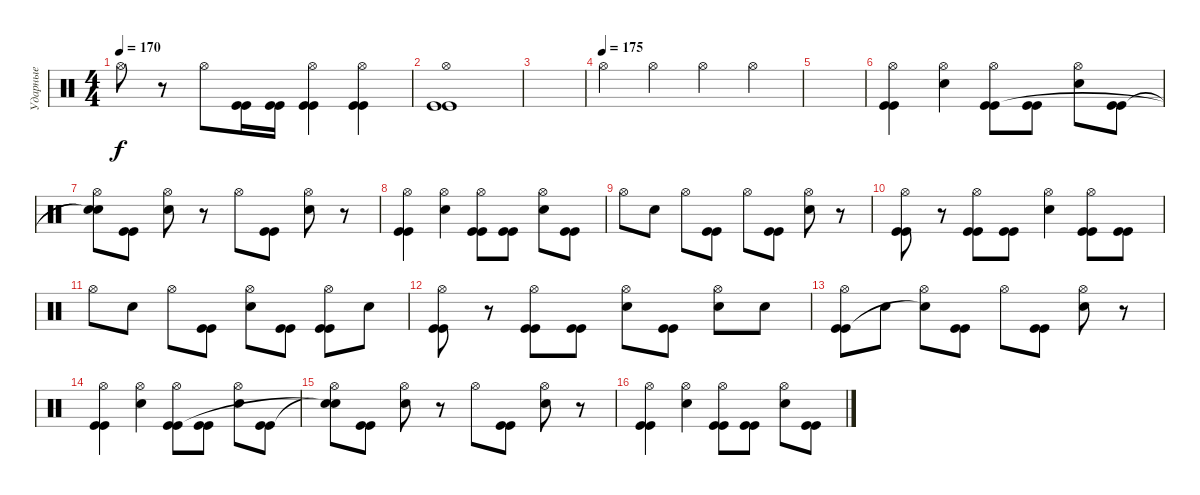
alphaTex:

\track ("Ударные" "Ударные") {instrument percussion}
\staff {score}
\articulation defaults
\ts (4 4)
\tempo 170
\clef neutral
\ks c "Hi-Hat (open)".8{dy f}
r.8 "Hi-Hat (open)".8 ("Kick (hit)" "Kick (hit)").16 ("Kick (hit)" "Kick (hit)").16 ("Hi-Hat (open)" "Kick (hit)" "Kick (hit)").4 ("Hi-Hat (open)" "Kick (hit)" "Kick (hit)").4 |
("Hi-Hat (open)" "Kick (hit)" "Kick (hit)").1 |
|
\tempo (175)
"Hi-Hat (open)".4 "Hi-Hat (open)".4 "Hi-Hat (open)".4 "Hi-Hat (open)".4 |
|
("Hi-Hat (open)" "Kick (hit)" "Kick (hit)").4 ("Hi-Hat (open)" "Snare (hit) 2").4 ("Hi-Hat (open)" "Kick (hit)" "Kick (hit)").8 ("Kick (hit)" "Kick (hit)").8 ("Hi-Hat (open)" "Snare (hit) 2").8 ("Kick (hit)" "Kick (hit)").8 |
("Hi-Hat (open)" "Snare (hit)"{t} "Snare (hit)"{t}).8 ("Kick (hit)" "Kick (hit)").8 ("Hi-Hat (open)" "Snare (hit) 2").8 r.8 "Hi-Hat (open)".8 ("Kick (hit)" "Kick (hit)").8 ("Hi-Hat (open)" "Snare (hit) 2").8 r.8 |
("Hi-Hat (open)" "Kick (hit)" "Kick (hit)").4 ("Hi-Hat (open)" "Snare (hit) 2").4 ("Hi-Hat (open)" "Kick (hit)" "Kick (hit)").8 ("Kick (hit)" "Kick (hit)").8 ("Hi-Hat (open)" "Snare (hit) 2").8 ("Kick (hit)" "Kick (hit)").8 |
"Hi-Hat (open)".8 "Snare (hit) 2".8 "Hi-Hat (open)".8 ("Kick (hit)" "Kick (hit)").8 "Hi-Hat (open)".8 ("Kick (hit)" "Kick (hit)").8 ("Hi-Hat (open)" "Snare (hit) 2").8 r.8 |
("Hi-Hat (open)" "Kick (hit)" "Kick (hit)").8 r.8 ("Hi-Hat (open)" "Kick (hit)" "Kick (hit)").8 ("Kick (hit)" "Kick (hit)").8 ("Hi-Hat (open)" "Snare (hit) 2").4 ("Hi-Hat (open)" "Kick (hit)" "Kick (hit)").8 ("Kick (hit)" "Kick (hit)").8 |
"Hi-Hat (open)".8 "Snare (hit) 2".8 "Hi-Hat (open)".8 ("Kick (hit)" "Kick (hit)").8 ("Hi-Hat (open)" "Snare (hit) 2").8 ("Kick (hit)" "Kick (hit)").8 ("Hi-Hat (open)" "Kick (hit)" "Kick (hit)").8 "Snare (hit) 2".8 |
("Hi-Hat (open)" "Kick (hit)" "Kick (hit)").8 r.8 ("Hi-Hat (open)" "Kick (hit)" "Kick (hit)").8 ("Kick (hit)" "Kick (hit)").8 ("Hi-Hat (open)" "Snare (hit) 2").8 ("Kick (hit)" "Kick (hit)").8 ("Hi-Hat (open)" "Snare (hit) 2").8 "Snare (hit) 2".8 |
("Hi-Hat (open)" "Kick (hit)" "Kick (hit)").8 "Snare (hit) 2".8 ("Hi-Hat (open)" "Snare (hit)"{t}).8 ("Kick (hit)" "Kick (hit)").8 "Hi-Hat (open)".8 ("Kick (hit)" "Kick (hit)").8 ("Hi-Hat (open)" "Snare (hit) 2").8 r.8 |
("Hi-Hat (open)" "Kick (hit)" "Kick (hit)").4 ("Hi-Hat (open)" "Snare (hit) 2").4 ("Hi-Hat (open)" "Kick (hit)" "Kick (hit)").8 ("Kick (hit)" "Kick (hit)").8 ("Hi-Hat (open)" "Snare (hit) 2").8 ("Kick (hit)" "Kick (hit)").8 |
("Hi-Hat (open)" "Snare (hit)"{t} "Snare (hit)"{t}).8 ("Kick (hit)" "Kick (hit)").8 ("Hi-Hat (open)" "Snare (hit) 2").8 r.8 "Hi-Hat (open)".8 ("Kick (hit)" "Kick (hit)").8 ("Hi-Hat (open)" "Snare (hit) 2").8 r.8 |
("Hi-Hat (open)" "Kick (hit)" "Kick (hit)").4 ("Hi-Hat (open)" "Snare (hit) 2").4 ("Hi-Hat (open)" "Kick (hit)" "Kick (hit)").8 ("Kick (hit)" "Kick (hit)").8 ("Hi-Hat (open)" "Snare (hit) 2").8 ("Kick (hit)" "Kick (hit)").8
